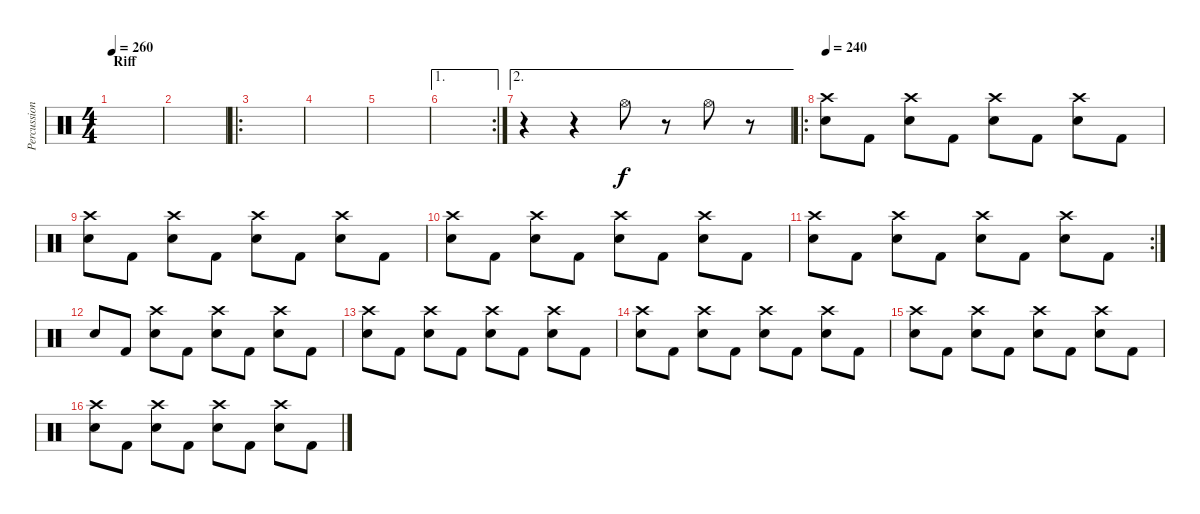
\track ("Percussion" "Percussion") {instrument percussion}
\staff {score}
\articulation defaults
\ts (4 4)
\section ("" "Riff")
\tempo 260
\clef neutral
\ks c
|
|
\ro
|
|
|
\ae 1
\rc 2
|
\ae 2
r.4 r.4 "Hi-Hat (open)".8 r.8 "Hi-Hat (open)".8 r.8 |
\ro
\tempo 240
("Crash high (hit)" "Electric Snare (hit)").8 "Kick (hit) 2".8 ("Crash high (hit)" "Electric Snare (hit)").8 "Kick (hit) 2".8 ("Crash high (hit)" "Electric Snare (hit)").8 "Kick (hit) 2".8 ("Crash high (hit)" "Electric Snare (hit)").8 "Kick (hit) 2".8 |
("Crash high (hit)" "Electric Snare (hit)").8 "Kick (hit) 2".8 ("Crash high (hit)" "Electric Snare (hit)").8 "Kick (hit) 2".8 ("Crash high (hit)" "Electric Snare (hit)").8 "Kick (hit) 2".8 ("Crash high (hit)" "Electric Snare (hit)").8 "Kick (hit) 2".8 |
("Crash high (hit)" "Electric Snare (hit)").8 "Kick (hit) 2".8 ("Crash high (hit)" "Electric Snare (hit)").8 "Kick (hit) 2".8 ("Crash high (hit)" "Electric Snare (hit)").8 "Kick (hit) 2".8 ("Crash high (hit)" "Electric Snare (hit)").8 "Kick (hit) 2".8 |
\rc 2
("Crash high (hit)" "Electric Snare (hit)").8 "Kick (hit) 2".8 ("Crash high (hit)" "Electric Snare (hit)").8 "Kick (hit) 2".8 ("Crash high (hit)" "Electric Snare (hit)").8 "Kick (hit) 2".8 ("Crash high (hit)" "Electric Snare (hit)").8 "Kick (hit) 2".8 |
"Electric Snare (hit)".8 "Kick (hit) 2".8 ("Crash high (hit)" "Electric Snare (hit)").8 "Kick (hit) 2".8 ("Crash high (hit)" "Electric Snare (hit)").8 "Kick (hit) 2".8 ("Crash high (hit)" "Electric Snare (hit)").8 "Kick (hit) 2".8 |
("Crash high (hit)" "Electric Snare (hit)").8 "Kick (hit) 2".8 ("Crash high (hit)" "Electric Snare (hit)").8 "Kick (hit) 2".8 ("Crash high (hit)" "Electric Snare (hit)").8 "Kick (hit) 2".8 ("Crash high (hit)" "Electric Snare (hit)").8 "Kick (hit) 2".8 |
("Crash high (hit)" "Electric Snare (hit)").8 "Kick (hit) 2".8 ("Crash high (hit)" "Electric Snare (hit)").8 "Kick (hit) 2".8 ("Crash high (hit)" "Electric Snare (hit)").8 "Kick (hit) 2".8 ("Crash high (hit)" "Electric Snare (hit)").8 "Kick (hit) 2".8 |
("Crash high (hit)" "Electric Snare (hit)").8 "Kick (hit) 2".8 ("Crash high (hit)" "Electric Snare (hit)").8 "Kick (hit) 2".8 ("Crash high (hit)" "Electric Snare (hit)").8 "Kick (hit) 2".8 ("Crash high (hit)" "Electric Snare (hit)").8 "Kick (hit) 2".8 |
("Crash high (hit)" "Electric Snare (hit)").8 "Kick (hit) 2".8 ("Crash high (hit)" "Electric Snare (hit)").8 "Kick (hit) 2".8 ("Crash high (hit)" "Electric Snare (hit)").8 "Kick (hit) 2".8 ("Crash high (hit)" "Electric Snare (hit)").8 "Kick (hit) 2".8
